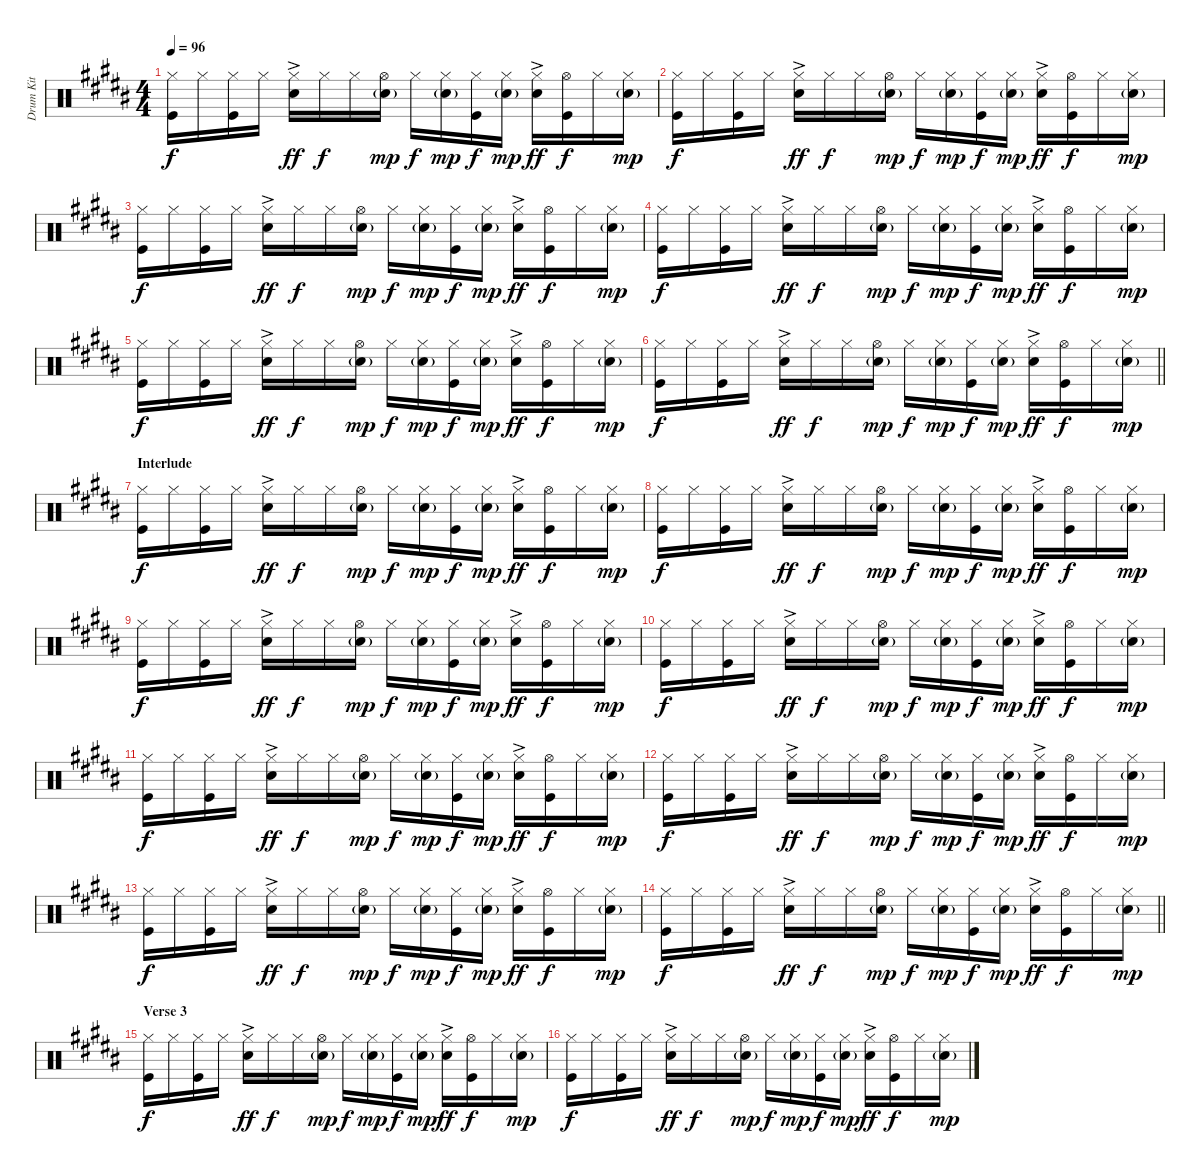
\track ("Drum Kit" "Drum Kit") {instrument percussion}
\staff {score}
\articulation defaults
\ts (4 4)
\tempo 96
\clef neutral
\ks b
("Kick (hit)" "Hi-Hat (closed)").16{dy f} "Hi-Hat (closed)".16 ("Kick (hit)" "Hi-Hat (closed)").16 "Hi-Hat (closed)".16 ("Snare (hit) 2"{ac} "Hi-Hat (closed)").16{dy ff} "Hi-Hat (closed)".16{dy f} "Hi-Hat (closed)".16 ("Snare (hit) 2"{g} "Hi-Hat (open)").16{dy mp} "Hi-Hat (closed)".16{dy f} ("Snare (hit) 2"{g} "Hi-Hat (closed)").16{dy mp} ("Kick (hit)" "Hi-Hat (closed)").16{dy f} ("Snare (hit) 2"{g} "Hi-Hat (closed)").16{dy mp} ("Snare (hit) 2"{ac} "Hi-Hat (closed)").16{dy ff} ("Kick (hit)" "Hi-Hat (open)").16{dy f} "Hi-Hat (closed)".16 ("Snare (hit) 2"{g} "Hi-Hat (closed)").16{dy mp} |
("Kick (hit)" "Hi-Hat (closed)").16{dy f} "Hi-Hat (closed)".16 ("Kick (hit)" "Hi-Hat (closed)").16 "Hi-Hat (closed)".16 ("Snare (hit) 2"{ac} "Hi-Hat (closed)").16{dy ff} "Hi-Hat (closed)".16{dy f} "Hi-Hat (closed)".16 ("Snare (hit) 2"{g} "Hi-Hat (open)").16{dy mp} "Hi-Hat (closed)".16{dy f} ("Snare (hit) 2"{g} "Hi-Hat (closed)").16{dy mp} ("Kick (hit)" "Hi-Hat (closed)").16{dy f} ("Snare (hit) 2"{g} "Hi-Hat (closed)").16{dy mp} ("Snare (hit) 2"{ac} "Hi-Hat (closed)").16{dy ff} ("Kick (hit)" "Hi-Hat (open)").16{dy f} "Hi-Hat (closed)".16 ("Snare (hit) 2"{g} "Hi-Hat (closed)").16{dy mp} |
("Kick (hit)" "Hi-Hat (closed)").16{dy f} "Hi-Hat (closed)".16 ("Kick (hit)" "Hi-Hat (closed)").16 "Hi-Hat (closed)".16 ("Snare (hit) 2"{ac} "Hi-Hat (closed)").16{dy ff} "Hi-Hat (closed)".16{dy f} "Hi-Hat (closed)".16 ("Snare (hit) 2"{g} "Hi-Hat (open)").16{dy mp} "Hi-Hat (closed)".16{dy f} ("Snare (hit) 2"{g} "Hi-Hat (closed)").16{dy mp} ("Kick (hit)" "Hi-Hat (closed)").16{dy f} ("Snare (hit) 2"{g} "Hi-Hat (closed)").16{dy mp} ("Snare (hit) 2"{ac} "Hi-Hat (closed)").16{dy ff} ("Kick (hit)" "Hi-Hat (open)").16{dy f} "Hi-Hat (closed)".16 ("Snare (hit) 2"{g} "Hi-Hat (closed)").16{dy mp} |
("Kick (hit)" "Hi-Hat (closed)").16{dy f} "Hi-Hat (closed)".16 ("Kick (hit)" "Hi-Hat (closed)").16 "Hi-Hat (closed)".16 ("Snare (hit) 2"{ac} "Hi-Hat (closed)").16{dy ff} "Hi-Hat (closed)".16{dy f} "Hi-Hat (closed)".16 ("Snare (hit) 2"{g} "Hi-Hat (open)").16{dy mp} "Hi-Hat (closed)".16{dy f} ("Snare (hit) 2"{g} "Hi-Hat (closed)").16{dy mp} ("Kick (hit)" "Hi-Hat (closed)").16{dy f} ("Snare (hit) 2"{g} "Hi-Hat (closed)").16{dy mp} ("Snare (hit) 2"{ac} "Hi-Hat (closed)").16{dy ff} ("Kick (hit)" "Hi-Hat (open)").16{dy f} "Hi-Hat (closed)".16 ("Snare (hit) 2"{g} "Hi-Hat (closed)").16{dy mp} |
("Kick (hit)" "Hi-Hat (closed)").16{dy f} "Hi-Hat (closed)".16 ("Kick (hit)" "Hi-Hat (closed)").16 "Hi-Hat (closed)".16 ("Snare (hit) 2"{ac} "Hi-Hat (closed)").16{dy ff} "Hi-Hat (closed)".16{dy f} "Hi-Hat (closed)".16 ("Snare (hit) 2"{g} "Hi-Hat (open)").16{dy mp} "Hi-Hat (closed)".16{dy f} ("Snare (hit) 2"{g} "Hi-Hat (closed)").16{dy mp} ("Kick (hit)" "Hi-Hat (closed)").16{dy f} ("Snare (hit) 2"{g} "Hi-Hat (closed)").16{dy mp} ("Snare (hit) 2"{ac} "Hi-Hat (closed)").16{dy ff} ("Kick (hit)" "Hi-Hat (open)").16{dy f} "Hi-Hat (closed)".16 ("Snare (hit) 2"{g} "Hi-Hat (closed)").16{dy mp} |
\barLineRight lightlight
("Kick (hit)" "Hi-Hat (closed)").16{dy f} "Hi-Hat (closed)".16 ("Kick (hit)" "Hi-Hat (closed)").16 "Hi-Hat (closed)".16 ("Snare (hit) 2"{ac} "Hi-Hat (closed)").16{dy ff} "Hi-Hat (closed)".16{dy f} "Hi-Hat (closed)".16 ("Snare (hit) 2"{g} "Hi-Hat (open)").16{dy mp} "Hi-Hat (closed)".16{dy f} ("Snare (hit) 2"{g} "Hi-Hat (closed)").16{dy mp} ("Kick (hit)" "Hi-Hat (closed)").16{dy f} ("Snare (hit) 2"{g} "Hi-Hat (closed)").16{dy mp} ("Snare (hit) 2"{ac} "Hi-Hat (closed)").16{dy ff} ("Kick (hit)" "Hi-Hat (open)").16{dy f} "Hi-Hat (closed)".16 ("Snare (hit) 2"{g} "Hi-Hat (closed)").16{dy mp} |
\section ("" "Interlude ")
("Kick (hit)" "Hi-Hat (closed)").16{dy f} "Hi-Hat (closed)".16 ("Kick (hit)" "Hi-Hat (closed)").16 "Hi-Hat (closed)".16 ("Snare (hit) 2"{ac} "Hi-Hat (closed)").16{dy ff} "Hi-Hat (closed)".16{dy f} "Hi-Hat (closed)".16 ("Snare (hit) 2"{g} "Hi-Hat (open)").16{dy mp} "Hi-Hat (closed)".16{dy f} ("Snare (hit) 2"{g} "Hi-Hat (closed)").16{dy mp} ("Kick (hit)" "Hi-Hat (closed)").16{dy f} ("Snare (hit) 2"{g} "Hi-Hat (closed)").16{dy mp} ("Snare (hit) 2"{ac} "Hi-Hat (closed)").16{dy ff} ("Kick (hit)" "Hi-Hat (open)").16{dy f} "Hi-Hat (closed)".16 ("Snare (hit) 2"{g} "Hi-Hat (closed)").16{dy mp} |
("Kick (hit)" "Hi-Hat (closed)").16{dy f} "Hi-Hat (closed)".16 ("Kick (hit)" "Hi-Hat (closed)").16 "Hi-Hat (closed)".16 ("Snare (hit) 2"{ac} "Hi-Hat (closed)").16{dy ff} "Hi-Hat (closed)".16{dy f} "Hi-Hat (closed)".16 ("Snare (hit) 2"{g} "Hi-Hat (open)").16{dy mp} "Hi-Hat (closed)".16{dy f} ("Snare (hit) 2"{g} "Hi-Hat (closed)").16{dy mp} ("Kick (hit)" "Hi-Hat (closed)").16{dy f} ("Snare (hit) 2"{g} "Hi-Hat (closed)").16{dy mp} ("Snare (hit) 2"{ac} "Hi-Hat (closed)").16{dy ff} ("Kick (hit)" "Hi-Hat (open)").16{dy f} "Hi-Hat (closed)".16 ("Snare (hit) 2"{g} "Hi-Hat (closed)").16{dy mp} |
("Kick (hit)" "Hi-Hat (closed)").16{dy f} "Hi-Hat (closed)".16 ("Kick (hit)" "Hi-Hat (closed)").16 "Hi-Hat (closed)".16 ("Snare (hit) 2"{ac} "Hi-Hat (closed)").16{dy ff} "Hi-Hat (closed)".16{dy f} "Hi-Hat (closed)".16 ("Snare (hit) 2"{g} "Hi-Hat (open)").16{dy mp} "Hi-Hat (closed)".16{dy f} ("Snare (hit) 2"{g} "Hi-Hat (closed)").16{dy mp} ("Kick (hit)" "Hi-Hat (closed)").16{dy f} ("Snare (hit) 2"{g} "Hi-Hat (closed)").16{dy mp} ("Snare (hit) 2"{ac} "Hi-Hat (closed)").16{dy ff} ("Kick (hit)" "Hi-Hat (open)").16{dy f} "Hi-Hat (closed)".16 ("Snare (hit) 2"{g} "Hi-Hat (closed)").16{dy mp} |
("Kick (hit)" "Hi-Hat (closed)").16{dy f} "Hi-Hat (closed)".16 ("Kick (hit)" "Hi-Hat (closed)").16 "Hi-Hat (closed)".16 ("Snare (hit) 2"{ac} "Hi-Hat (closed)").16{dy ff} "Hi-Hat (closed)".16{dy f} "Hi-Hat (closed)".16 ("Snare (hit) 2"{g} "Hi-Hat (open)").16{dy mp} "Hi-Hat (closed)".16{dy f} ("Snare (hit) 2"{g} "Hi-Hat (closed)").16{dy mp} ("Kick (hit)" "Hi-Hat (closed)").16{dy f} ("Snare (hit) 2"{g} "Hi-Hat (closed)").16{dy mp} ("Snare (hit) 2"{ac} "Hi-Hat (closed)").16{dy ff} ("Kick (hit)" "Hi-Hat (open)").16{dy f} "Hi-Hat (closed)".16 ("Snare (hit) 2"{g} "Hi-Hat (closed)").16{dy mp} |
("Kick (hit)" "Hi-Hat (closed)").16{dy f} "Hi-Hat (closed)".16 ("Kick (hit)" "Hi-Hat (closed)").16 "Hi-Hat (closed)".16 ("Snare (hit) 2"{ac} "Hi-Hat (closed)").16{dy ff} "Hi-Hat (closed)".16{dy f} "Hi-Hat (closed)".16 ("Snare (hit) 2"{g} "Hi-Hat (open)").16{dy mp} "Hi-Hat (closed)".16{dy f} ("Snare (hit) 2"{g} "Hi-Hat (closed)").16{dy mp} ("Kick (hit)" "Hi-Hat (closed)").16{dy f} ("Snare (hit) 2"{g} "Hi-Hat (closed)").16{dy mp} ("Snare (hit) 2"{ac} "Hi-Hat (closed)").16{dy ff} ("Kick (hit)" "Hi-Hat (open)").16{dy f} "Hi-Hat (closed)".16 ("Snare (hit) 2"{g} "Hi-Hat (closed)").16{dy mp} |
("Kick (hit)" "Hi-Hat (closed)").16{dy f} "Hi-Hat (closed)".16 ("Kick (hit)" "Hi-Hat (closed)").16 "Hi-Hat (closed)".16 ("Snare (hit) 2"{ac} "Hi-Hat (closed)").16{dy ff} "Hi-Hat (closed)".16{dy f} "Hi-Hat (closed)".16 ("Snare (hit) 2"{g} "Hi-Hat (open)").16{dy mp} "Hi-Hat (closed)".16{dy f} ("Snare (hit) 2"{g} "Hi-Hat (closed)").16{dy mp} ("Kick (hit)" "Hi-Hat (closed)").16{dy f} ("Snare (hit) 2"{g} "Hi-Hat (closed)").16{dy mp} ("Snare (hit) 2"{ac} "Hi-Hat (closed)").16{dy ff} ("Kick (hit)" "Hi-Hat (open)").16{dy f} "Hi-Hat (closed)".16 ("Snare (hit) 2"{g} "Hi-Hat (closed)").16{dy mp} |
("Kick (hit)" "Hi-Hat (closed)").16{dy f} "Hi-Hat (closed)".16 ("Kick (hit)" "Hi-Hat (closed)").16 "Hi-Hat (closed)".16 ("Snare (hit) 2"{ac} "Hi-Hat (closed)").16{dy ff} "Hi-Hat (closed)".16{dy f} "Hi-Hat (closed)".16 ("Snare (hit) 2"{g} "Hi-Hat (open)").16{dy mp} "Hi-Hat (closed)".16{dy f} ("Snare (hit) 2"{g} "Hi-Hat (closed)").16{dy mp} ("Kick (hit)" "Hi-Hat (closed)").16{dy f} ("Snare (hit) 2"{g} "Hi-Hat (closed)").16{dy mp} ("Snare (hit) 2"{ac} "Hi-Hat (closed)").16{dy ff} ("Kick (hit)" "Hi-Hat (open)").16{dy f} "Hi-Hat (closed)".16 ("Snare (hit) 2"{g} "Hi-Hat (closed)").16{dy mp} |
\barLineRight lightlight
("Kick (hit)" "Hi-Hat (closed)").16{dy f} "Hi-Hat (closed)".16 ("Kick (hit)" "Hi-Hat (closed)").16 "Hi-Hat (closed)".16 ("Snare (hit) 2"{ac} "Hi-Hat (closed)").16{dy ff} "Hi-Hat (closed)".16{dy f} "Hi-Hat (closed)".16 ("Snare (hit) 2"{g} "Hi-Hat (open)").16{dy mp} "Hi-Hat (closed)".16{dy f} ("Snare (hit) 2"{g} "Hi-Hat (closed)").16{dy mp} ("Kick (hit)" "Hi-Hat (closed)").16{dy f} ("Snare (hit) 2"{g} "Hi-Hat (closed)").16{dy mp} ("Snare (hit) 2"{ac} "Hi-Hat (closed)").16{dy ff} ("Kick (hit)" "Hi-Hat (open)").16{dy f} "Hi-Hat (closed)".16 ("Snare (hit) 2"{g} "Hi-Hat (closed)").16{dy mp} |
\section ("" "Verse 3")
("Kick (hit)" "Hi-Hat (closed)").16{dy f} "Hi-Hat (closed)".16 ("Kick (hit)" "Hi-Hat (closed)").16 "Hi-Hat (closed)".16 ("Snare (hit) 2"{ac} "Hi-Hat (closed)").16{dy ff} "Hi-Hat (closed)".16{dy f} "Hi-Hat (closed)".16 ("Snare (hit) 2"{g} "Hi-Hat (open)").16{dy mp} "Hi-Hat (closed)".16{dy f} ("Snare (hit) 2"{g} "Hi-Hat (closed)").16{dy mp} ("Kick (hit)" "Hi-Hat (closed)").16{dy f} ("Snare (hit) 2"{g} "Hi-Hat (closed)").16{dy mp} ("Snare (hit) 2"{ac} "Hi-Hat (closed)").16{dy ff} ("Kick (hit)" "Hi-Hat (open)").16{dy f} "Hi-Hat (closed)".16 ("Snare (hit) 2"{g} "Hi-Hat (closed)").16{dy mp} |
("Kick (hit)" "Hi-Hat (closed)").16{dy f} "Hi-Hat (closed)".16 ("Kick (hit)" "Hi-Hat (closed)").16 "Hi-Hat (closed)".16 ("Snare (hit) 2"{ac} "Hi-Hat (closed)").16{dy ff} "Hi-Hat (closed)".16{dy f} "Hi-Hat (closed)".16 ("Snare (hit) 2"{g} "Hi-Hat (open)").16{dy mp} "Hi-Hat (closed)".16{dy f} ("Snare (hit) 2"{g} "Hi-Hat (closed)").16{dy mp} ("Kick (hit)" "Hi-Hat (closed)").16{dy f} ("Snare (hit) 2"{g} "Hi-Hat (closed)").16{dy mp} ("Snare (hit) 2"{ac} "Hi-Hat (closed)").16{dy ff} ("Kick (hit)" "Hi-Hat (open)").16{dy f} "Hi-Hat (closed)".16 ("Snare (hit) 2"{g} "Hi-Hat (closed)").16{dy mp}
